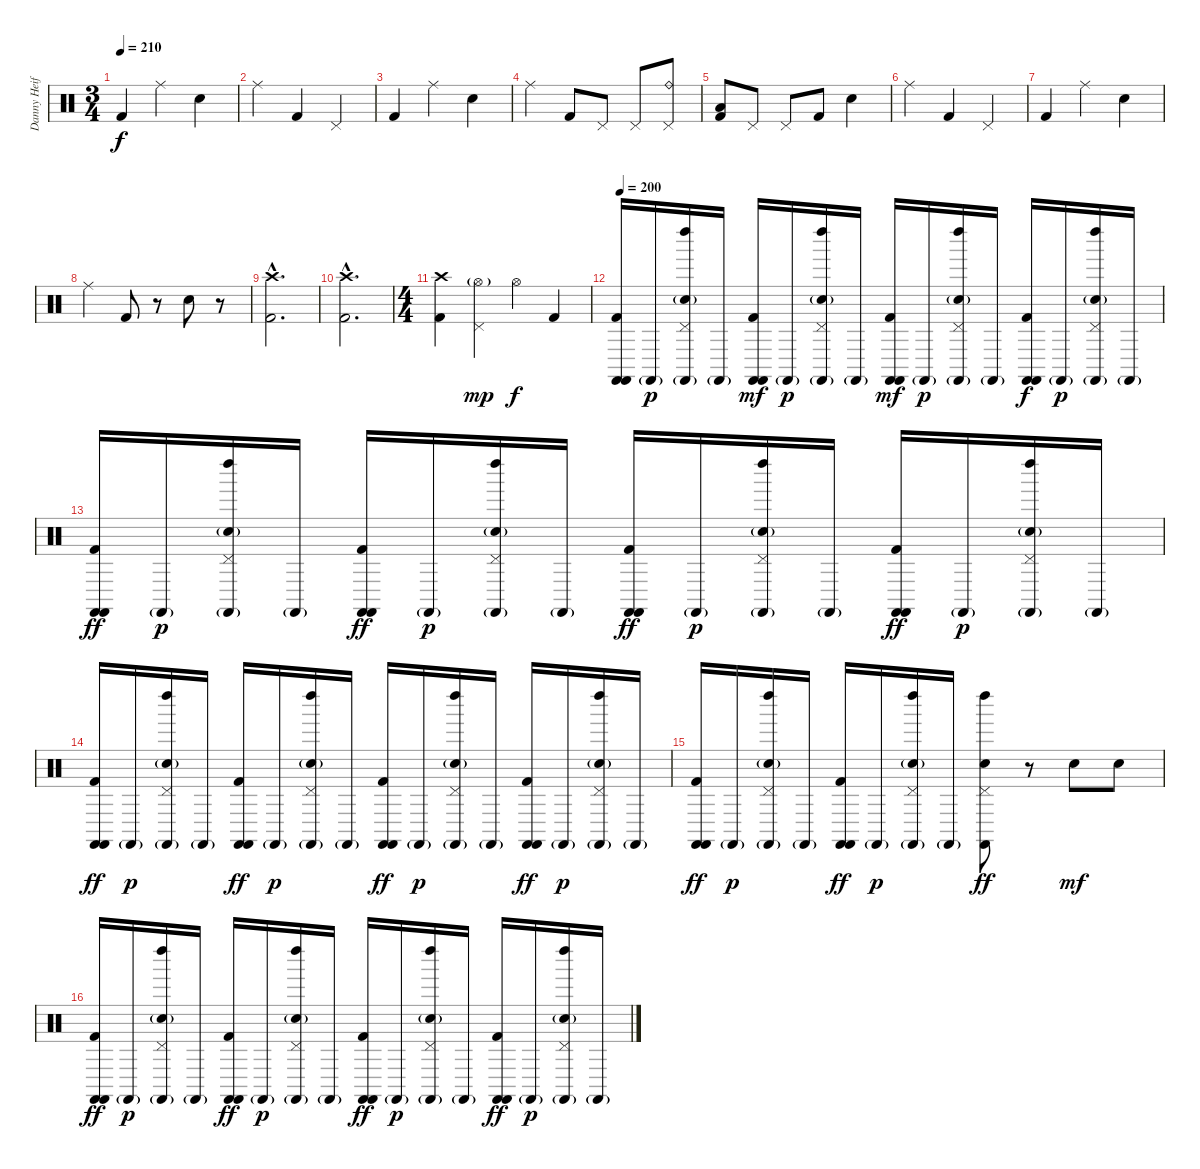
\track ("Danny Heifetz - Drums" "Danny Heif") {instrument percussion}
\staff {score}
\articulation defaults
\ts (3 4)
\tempo 210
\clef neutral
\ks c "Kick (hit) 2".4{dy f} "Ride (middle)".4 "Electric Snare (hit)".4
|
"Ride (middle)".4 "Kick (hit) 2".4 "Pedal Hi-Hat (hit)".4 |
"Kick (hit) 2".4 "Ride (middle)".4 "Electric Snare (hit)".4 |
"Ride (middle)".4 "Kick (hit) 2".8 "Pedal Hi-Hat (hit)".8 "Pedal Hi-Hat (hit)".8 ("Ride (bell)" "Pedal Hi-Hat (hit)").8 |
("Low Tom (hit)" "Kick (hit) 2").8 "Pedal Hi-Hat (hit)".8 "Pedal Hi-Hat (hit)".8 "Kick (hit) 2".8 "Electric Snare (hit)".4 |
"Ride (middle)".4 "Kick (hit) 2".4 "Pedal Hi-Hat (hit)".4 |
"Kick (hit) 2".4 "Ride (middle)".4 "Electric Snare (hit)".4 |
"Ride (middle)".4 "Kick (hit) 2".8 r.8 "Electric Snare (hit)".8 r.8 |
("Crash high (hit)"{hac} "Kick (hit) 2"{hac}).2{d} |
("Crash high (hit)"{hac} "Kick (hit) 2"{hac}).2{d} |
\ts (4 4)
("Crash high (hit)" "Kick (hit) 2").4 ("Hi-Hat (open)"{g} "Pedal Hi-Hat (hit)").4{dy mp} "Hi-Hat (open)".4{dy f} "Kick (hit) 2".4 |
\tempo 200
("Kick (hit) 2" "Castanets (hit)" "Castanets (hit)").16{volume 16} "Castanets (hit)"{g}.16{dy p} ("Left Maraca (hit)" "Pedal Hi-Hat (hit)" "Electric Snare (hit)"{g} "Castanets (hit)"{g}).16 "Castanets (hit)"{g}.16 ("Kick (hit) 2" "Castanets (hit)" "Castanets (hit)").16{dy mf} "Castanets (hit)"{g}.16{dy p} ("Left Maraca (hit)" "Pedal Hi-Hat (hit)" "Electric Snare (hit)"{g} "Castanets (hit)"{g}).16 "Castanets (hit)"{g}.16 ("Kick (hit) 2" "Castanets (hit)" "Castanets (hit)").16{dy mf} "Castanets (hit)"{g}.16{dy p} ("Left Maraca (hit)" "Pedal Hi-Hat (hit)" "Electric Snare (hit)"{g} "Castanets (hit)"{g}).16 "Castanets (hit)"{g}.16 ("Kick (hit) 2" "Castanets (hit)" "Castanets (hit)").16{dy f} "Castanets (hit)"{g}.16{dy p} ("Left Maraca (hit)" "Pedal Hi-Hat (hit)" "Electric Snare (hit)"{g} "Castanets (hit)"{g}).16 "Castanets (hit)"{g}.16 |
("Kick (hit) 2" "Castanets (hit)" "Castanets (hit)").16{dy ff} "Castanets (hit)"{g}.16{dy p} ("Left Maraca (hit)" "Pedal Hi-Hat (hit)" "Electric Snare (hit)"{g} "Castanets (hit)"{g}).16 "Castanets (hit)"{g}.16 ("Kick (hit) 2" "Castanets (hit)" "Castanets (hit)").16{dy ff} "Castanets (hit)"{g}.16{dy p} ("Left Maraca (hit)" "Pedal Hi-Hat (hit)" "Electric Snare (hit)"{g} "Castanets (hit)"{g}).16 "Castanets (hit)"{g}.16 ("Kick (hit) 2" "Castanets (hit)" "Castanets (hit)").16{dy ff} "Castanets (hit)"{g}.16{dy p} ("Left Maraca (hit)" "Pedal Hi-Hat (hit)" "Electric Snare (hit)"{g} "Castanets (hit)"{g}).16 "Castanets (hit)"{g}.16 ("Kick (hit) 2" "Castanets (hit)" "Castanets (hit)").16{dy ff} "Castanets (hit)"{g}.16{dy p} ("Left Maraca (hit)" "Pedal Hi-Hat (hit)" "Electric Snare (hit)"{g} "Castanets (hit)"{g}).16 "Castanets (hit)"{g}.16 |
("Kick (hit) 2" "Castanets (hit)" "Castanets (hit)").16{dy ff} "Castanets (hit)"{g}.16{dy p} ("Left Maraca (hit)" "Pedal Hi-Hat (hit)" "Electric Snare (hit)"{g} "Castanets (hit)"{g}).16 "Castanets (hit)"{g}.16 ("Kick (hit) 2" "Castanets (hit)" "Castanets (hit)").16{dy ff} "Castanets (hit)"{g}.16{dy p} ("Left Maraca (hit)" "Pedal Hi-Hat (hit)" "Electric Snare (hit)"{g} "Castanets (hit)"{g}).16 "Castanets (hit)"{g}.16 ("Kick (hit) 2" "Castanets (hit)" "Castanets (hit)").16{dy ff} "Castanets (hit)"{g}.16{dy p} ("Left Maraca (hit)" "Pedal Hi-Hat (hit)" "Electric Snare (hit)"{g} "Castanets (hit)"{g}).16 "Castanets (hit)"{g}.16 ("Kick (hit) 2" "Castanets (hit)" "Castanets (hit)").16{dy ff} "Castanets (hit)"{g}.16{dy p} ("Left Maraca (hit)" "Pedal Hi-Hat (hit)" "Electric Snare (hit)"{g} "Castanets (hit)"{g}).16 "Castanets (hit)"{g}.16 |
("Kick (hit) 2" "Castanets (hit)" "Castanets (hit)").16{dy ff} "Castanets (hit)"{g}.16{dy p} ("Left Maraca (hit)" "Pedal Hi-Hat (hit)" "Electric Snare (hit)"{g} "Castanets (hit)"{g}).16 "Castanets (hit)"{g}.16 ("Kick (hit) 2" "Castanets (hit)" "Castanets (hit)").16{dy ff} "Castanets (hit)"{g}.16{dy p} ("Left Maraca (hit)" "Pedal Hi-Hat (hit)" "Electric Snare (hit)"{g} "Castanets (hit)"{g}).16 "Castanets (hit)"{g}.16 ("Left Maraca (hit)" "Pedal Hi-Hat (hit)" "Electric Snare (hit)" "Castanets (hit)").8{dy ff} r.8 "Electric Snare (hit)".8{dy mf} "Electric Snare (hit)".8 |
("Kick (hit) 2" "Castanets (hit)" "Castanets (hit)").16{dy ff} "Castanets (hit)"{g}.16{dy p} ("Left Maraca (hit)" "Pedal Hi-Hat (hit)" "Electric Snare (hit)"{g} "Castanets (hit)"{g}).16 "Castanets (hit)"{g}.16 ("Kick (hit) 2" "Castanets (hit)" "Castanets (hit)").16{dy ff} "Castanets (hit)"{g}.16{dy p} ("Left Maraca (hit)" "Pedal Hi-Hat (hit)" "Electric Snare (hit)"{g} "Castanets (hit)"{g}).16 "Castanets (hit)"{g}.16 ("Kick (hit) 2" "Castanets (hit)" "Castanets (hit)").16{dy ff} "Castanets (hit)"{g}.16{dy p} ("Left Maraca (hit)" "Pedal Hi-Hat (hit)" "Electric Snare (hit)"{g} "Castanets (hit)"{g}).16 "Castanets (hit)"{g}.16 ("Kick (hit) 2" "Castanets (hit)" "Castanets (hit)").16{dy ff} "Castanets (hit)"{g}.16{dy p} ("Left Maraca (hit)" "Pedal Hi-Hat (hit)" "Electric Snare (hit)"{g} "Castanets (hit)"{g}).16 "Castanets (hit)"{g}.16
